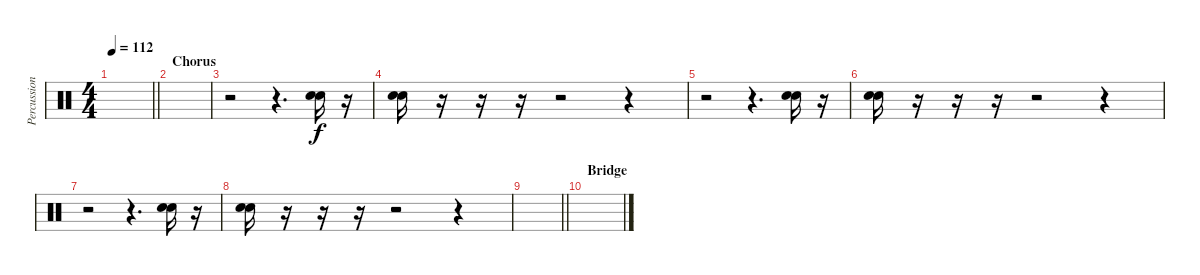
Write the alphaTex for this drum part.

\track ("Percussion" "Percussion") {instrument percussion}
\staff {score}
\articulation defaults
\ts (4 4)
\tempo 112
\clef neutral
\barLineRight lightlight
\ks c
|
\section ("" "Chorus")
|
r.2 r.4{d} ("Hand Clap (hit)" "Hand Clap (hit)").16 r.16 |
("Hand Clap (hit)" "Hand Clap (hit)").16 r.16 r.16 r.16 r.2 r.4 |
r.2 r.4{d} ("Hand Clap (hit)" "Hand Clap (hit)").16 r.16 |
("Hand Clap (hit)" "Hand Clap (hit)").16 r.16 r.16 r.16 r.2 r.4 |
r.2 r.4{d} ("Hand Clap (hit)" "Hand Clap (hit)").16 r.16 |
("Hand Clap (hit)" "Hand Clap (hit)").16 r.16 r.16 r.16 r.2 r.4 |
\barLineRight lightlight
|
\section ("" "Bridge")
